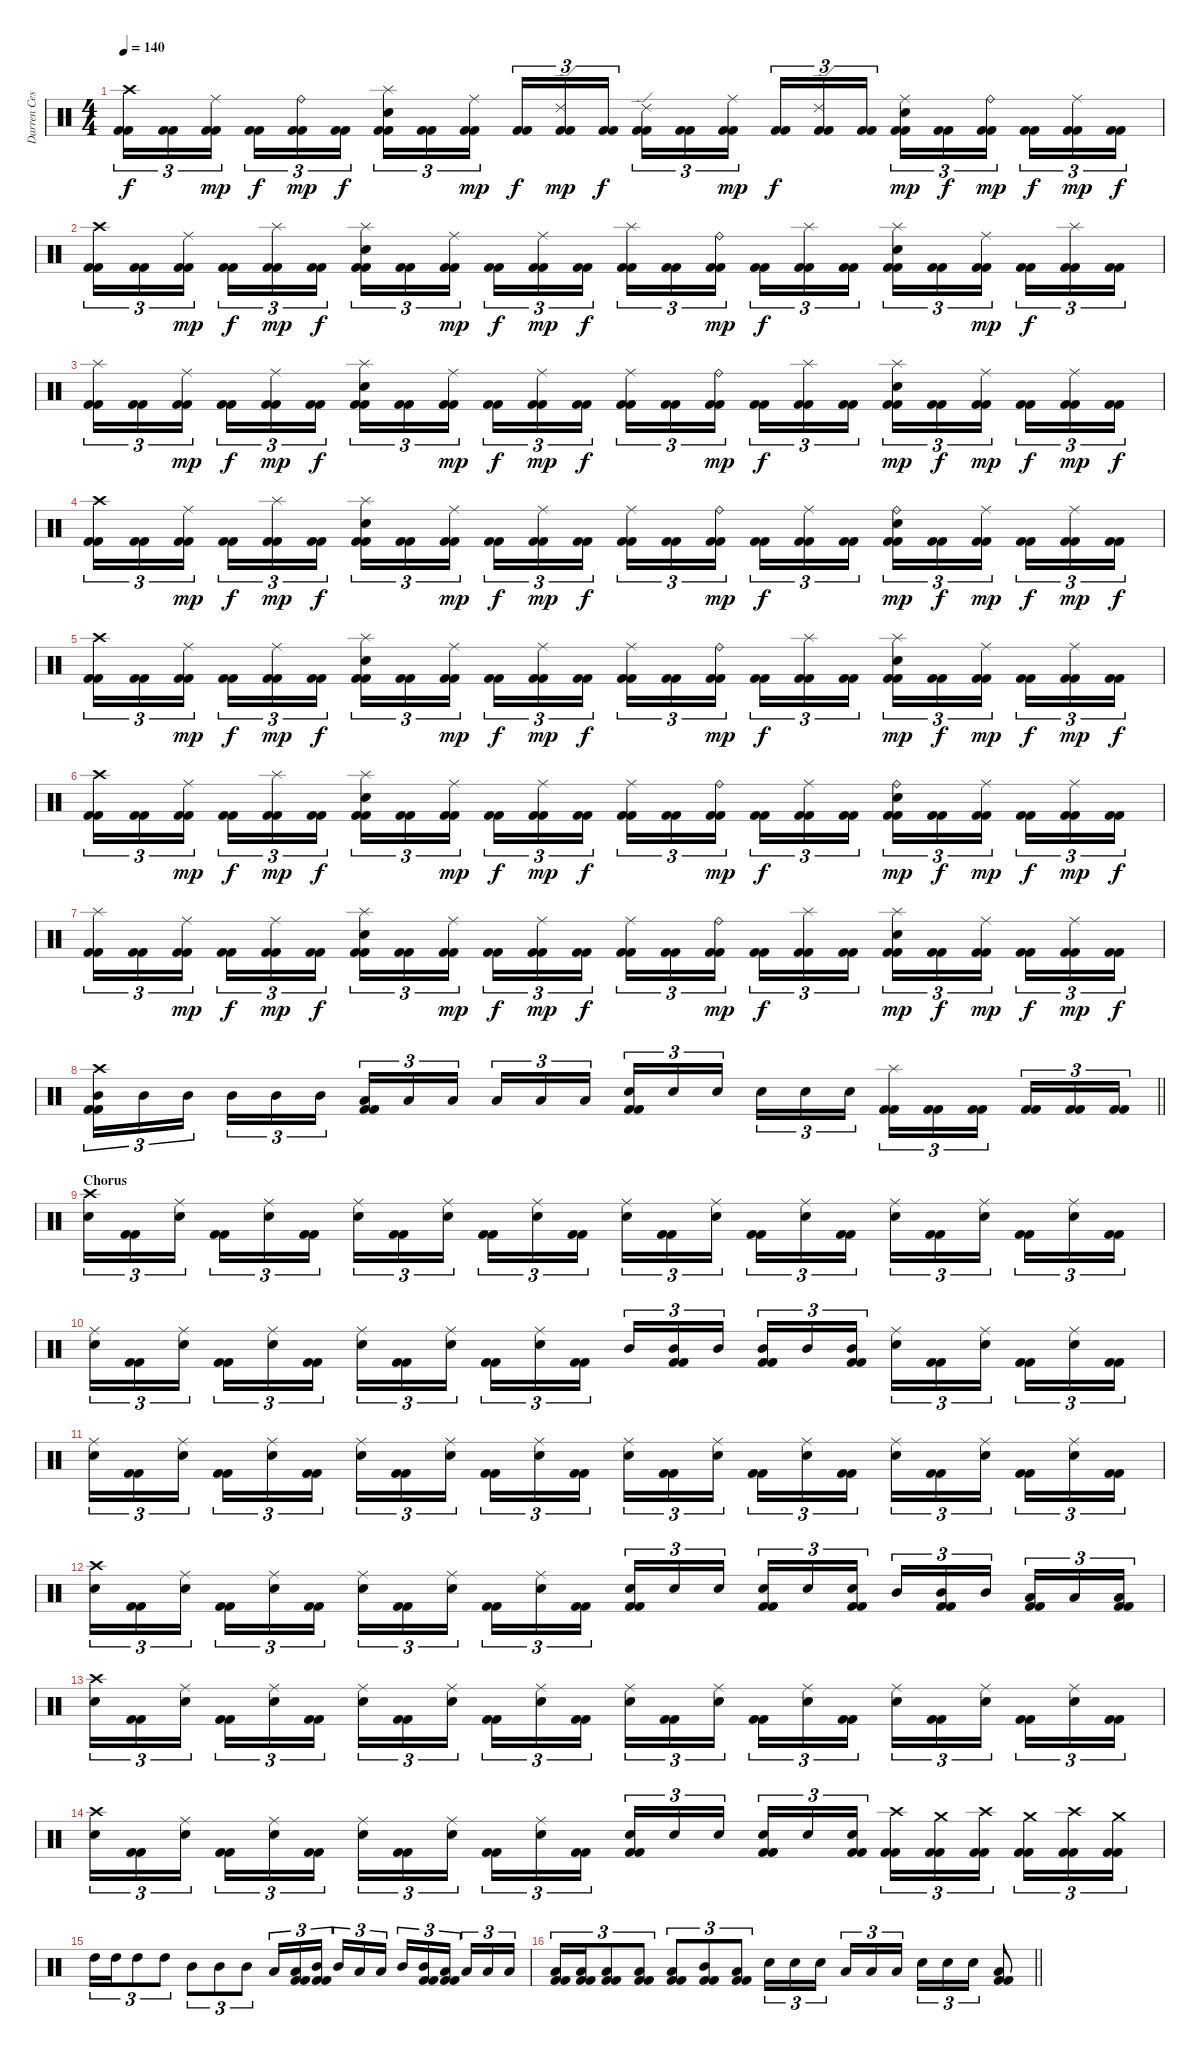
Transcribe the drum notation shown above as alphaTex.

\track ("Darren Cesca" "Darren Ces") {instrument percussion}
\staff {score}
\articulation defaults
\ts (4 4)
\tempo 140
\clef neutral
\ks c
("Crash high (hit)" "Kick (hit) 2" "Kick (hit) 2").16{tu (3 2) dy f} ("Kick (hit) 2" "Kick (hit) 2").16{tu (3 2)} ("Ride (middle)" "Kick (hit) 2" "Kick (hit) 2").16{tu (3 2) dy mp beam splitsecondary} ("Kick (hit) 2" "Kick (hit) 2").16{tu (3 2) dy f} ("Ride (bell)" "Kick (hit) 2" "Kick (hit) 2").16{tu (3 2) dy mp} ("Kick (hit) 2" "Kick (hit) 2").16{tu (3 2) dy f} ("Splash (hit)" "Electric Snare (hit)" "Kick (hit) 2" "Kick (hit) 2").16{tu (3 2)} ("Kick (hit) 2" "Kick (hit) 2").16{tu (3 2)} ("Ride (middle)" "Kick (hit) 2" "Kick (hit) 2").16{tu (3 2) dy mp beam splitsecondary} ("Kick (hit) 2" "Kick (hit) 2").16{tu (3 2) dy f} ("Ride (edge) 2" "Kick (hit) 2" "Kick (hit) 2").16{tu (3 2) dy mp} ("Kick (hit) 2" "Kick (hit) 2").16{tu (3 2) dy f} ("Ride (edge) 2" "Kick (hit) 2" "Kick (hit) 2").16{tu (3 2)} ("Kick (hit) 2" "Kick (hit) 2").16{tu (3 2)} ("Ride (middle)" "Kick (hit) 2" "Kick (hit) 2").16{tu (3 2) dy mp beam splitsecondary} ("Kick (hit) 2" "Kick (hit) 2").16{tu (3 2) dy f} ("Ride (edge) 2" "Kick (hit) 2" "Kick (hit) 2").16{tu (3 2)} ("Kick (hit) 2" "Kick (hit) 2").16{tu (3 2)} ("Ride (middle)" "Electric Snare (hit)" "Kick (hit) 2" "Kick (hit) 2").16{tu (3 2) dy mp} ("Kick (hit) 2" "Kick (hit) 2").16{tu (3 2) dy f} ("Ride (bell)" "Kick (hit) 2" "Kick (hit) 2").16{tu (3 2) dy mp beam splitsecondary} ("Kick (hit) 2" "Kick (hit) 2").16{tu (3 2) dy f} ("Ride (middle)" "Kick (hit) 2" "Kick (hit) 2").16{tu (3 2) dy mp} ("Kick (hit) 2" "Kick (hit) 2").16{tu (3 2) dy f} |
("Crash high (hit)" "Kick (hit) 2" "Kick (hit) 2").16{tu (3 2)} ("Kick (hit) 2" "Kick (hit) 2").16{tu (3 2)} ("Ride (middle)" "Kick (hit) 2" "Kick (hit) 2").16{tu (3 2) dy mp beam splitsecondary} ("Kick (hit) 2" "Kick (hit) 2").16{tu (3 2) dy f} ("Splash (hit)" "Kick (hit) 2" "Kick (hit) 2").16{tu (3 2) dy mp} ("Kick (hit) 2" "Kick (hit) 2").16{tu (3 2) dy f} ("Splash (hit)" "Electric Snare (hit)" "Kick (hit) 2" "Kick (hit) 2").16{tu (3 2)} ("Kick (hit) 2" "Kick (hit) 2").16{tu (3 2)} ("Ride (middle)" "Kick (hit) 2" "Kick (hit) 2").16{tu (3 2) dy mp beam splitsecondary} ("Kick (hit) 2" "Kick (hit) 2").16{tu (3 2) dy f} ("Ride (middle)" "Kick (hit) 2" "Kick (hit) 2").16{tu (3 2) dy mp} ("Kick (hit) 2" "Kick (hit) 2").16{tu (3 2) dy f} ("Splash (hit)" "Kick (hit) 2" "Kick (hit) 2").16{tu (3 2)} ("Kick (hit) 2" "Kick (hit) 2").16{tu (3 2)} ("Ride (bell)" "Kick (hit) 2" "Kick (hit) 2").16{tu (3 2) dy mp beam splitsecondary} ("Kick (hit) 2" "Kick (hit) 2").16{tu (3 2) dy f} ("Splash (hit)" "Kick (hit) 2" "Kick (hit) 2").16{tu (3 2)} ("Kick (hit) 2" "Kick (hit) 2").16{tu (3 2)} ("Splash (hit)" "Electric Snare (hit)" "Kick (hit) 2" "Kick (hit) 2").16{tu (3 2)} ("Kick (hit) 2" "Kick (hit) 2").16{tu (3 2)} ("Ride (middle)" "Kick (hit) 2" "Kick (hit) 2").16{tu (3 2) dy mp beam splitsecondary} ("Kick (hit) 2" "Kick (hit) 2").16{tu (3 2) dy f} ("Splash (hit)" "Kick (hit) 2" "Kick (hit) 2").16{tu (3 2)} ("Kick (hit) 2" "Kick (hit) 2").16{tu (3 2)} |
("Splash (hit)" "Kick (hit) 2" "Kick (hit) 2").16{tu (3 2)} ("Kick (hit) 2" "Kick (hit) 2").16{tu (3 2)} ("Ride (middle)" "Kick (hit) 2" "Kick (hit) 2").16{tu (3 2) dy mp beam splitsecondary} ("Kick (hit) 2" "Kick (hit) 2").16{tu (3 2) dy f} ("Ride (middle)" "Kick (hit) 2" "Kick (hit) 2").16{tu (3 2) dy mp} ("Kick (hit) 2" "Kick (hit) 2").16{tu (3 2) dy f} ("Splash (hit)" "Electric Snare (hit)" "Kick (hit) 2" "Kick (hit) 2").16{tu (3 2)} ("Kick (hit) 2" "Kick (hit) 2").16{tu (3 2)} ("Ride (middle)" "Kick (hit) 2" "Kick (hit) 2").16{tu (3 2) dy mp beam splitsecondary} ("Kick (hit) 2" "Kick (hit) 2").16{tu (3 2) dy f} ("Ride (middle)" "Kick (hit) 2" "Kick (hit) 2").16{tu (3 2) dy mp} ("Kick (hit) 2" "Kick (hit) 2").16{tu (3 2) dy f} ("Ride (middle)" "Kick (hit) 2" "Kick (hit) 2").16{tu (3 2)} ("Kick (hit) 2" "Kick (hit) 2").16{tu (3 2)} ("Ride (bell)" "Kick (hit) 2" "Kick (hit) 2").16{tu (3 2) dy mp beam splitsecondary} ("Kick (hit) 2" "Kick (hit) 2").16{tu (3 2) dy f} ("Splash (hit)" "Kick (hit) 2" "Kick (hit) 2").16{tu (3 2)} ("Kick (hit) 2" "Kick (hit) 2").16{tu (3 2)} ("Splash (hit)" "Electric Snare (hit)" "Kick (hit) 2" "Kick (hit) 2").16{tu (3 2) dy mp} ("Kick (hit) 2" "Kick (hit) 2").16{tu (3 2) dy f} ("Ride (middle)" "Kick (hit) 2" "Kick (hit) 2").16{tu (3 2) dy mp beam splitsecondary} ("Kick (hit) 2" "Kick (hit) 2").16{tu (3 2) dy f} ("Ride (middle)" "Kick (hit) 2" "Kick (hit) 2").16{tu (3 2) dy mp} ("Kick (hit) 2" "Kick (hit) 2").16{tu (3 2) dy f} |
("Crash high (hit)" "Kick (hit) 2" "Kick (hit) 2").16{tu (3 2)} ("Kick (hit) 2" "Kick (hit) 2").16{tu (3 2)} ("Ride (middle)" "Kick (hit) 2" "Kick (hit) 2").16{tu (3 2) dy mp beam splitsecondary} ("Kick (hit) 2" "Kick (hit) 2").16{tu (3 2) dy f} ("Splash (hit)" "Kick (hit) 2" "Kick (hit) 2").16{tu (3 2) dy mp} ("Kick (hit) 2" "Kick (hit) 2").16{tu (3 2) dy f} ("Splash (hit)" "Electric Snare (hit)" "Kick (hit) 2" "Kick (hit) 2").16{tu (3 2)} ("Kick (hit) 2" "Kick (hit) 2").16{tu (3 2)} ("Ride (middle)" "Kick (hit) 2" "Kick (hit) 2").16{tu (3 2) dy mp beam splitsecondary} ("Kick (hit) 2" "Kick (hit) 2").16{tu (3 2) dy f} ("Ride (middle)" "Kick (hit) 2" "Kick (hit) 2").16{tu (3 2) dy mp} ("Kick (hit) 2" "Kick (hit) 2").16{tu (3 2) dy f} ("Ride (middle)" "Kick (hit) 2" "Kick (hit) 2").16{tu (3 2)} ("Kick (hit) 2" "Kick (hit) 2").16{tu (3 2)} ("Ride (bell)" "Kick (hit) 2" "Kick (hit) 2").16{tu (3 2) dy mp beam splitsecondary} ("Kick (hit) 2" "Kick (hit) 2").16{tu (3 2) dy f} ("Ride (middle)" "Kick (hit) 2" "Kick (hit) 2").16{tu (3 2)} ("Kick (hit) 2" "Kick (hit) 2").16{tu (3 2)} ("Ride (bell)" "Electric Snare (hit)" "Kick (hit) 2" "Kick (hit) 2").16{tu (3 2) dy mp} ("Kick (hit) 2" "Kick (hit) 2").16{tu (3 2) dy f} ("Ride (middle)" "Kick (hit) 2" "Kick (hit) 2").16{tu (3 2) dy mp beam splitsecondary} ("Kick (hit) 2" "Kick (hit) 2").16{tu (3 2) dy f} ("Ride (middle)" "Kick (hit) 2" "Kick (hit) 2").16{tu (3 2) dy mp} ("Kick (hit) 2" "Kick (hit) 2").16{tu (3 2) dy f} |
("Crash high (hit)" "Kick (hit) 2" "Kick (hit) 2").16{tu (3 2)} ("Kick (hit) 2" "Kick (hit) 2").16{tu (3 2)} ("Ride (middle)" "Kick (hit) 2" "Kick (hit) 2").16{tu (3 2) dy mp beam splitsecondary} ("Kick (hit) 2" "Kick (hit) 2").16{tu (3 2) dy f} ("Ride (middle)" "Kick (hit) 2" "Kick (hit) 2").16{tu (3 2) dy mp} ("Kick (hit) 2" "Kick (hit) 2").16{tu (3 2) dy f} ("Splash (hit)" "Electric Snare (hit)" "Kick (hit) 2" "Kick (hit) 2").16{tu (3 2)} ("Kick (hit) 2" "Kick (hit) 2").16{tu (3 2)} ("Ride (middle)" "Kick (hit) 2" "Kick (hit) 2").16{tu (3 2) dy mp beam splitsecondary} ("Kick (hit) 2" "Kick (hit) 2").16{tu (3 2) dy f} ("Ride (middle)" "Kick (hit) 2" "Kick (hit) 2").16{tu (3 2) dy mp} ("Kick (hit) 2" "Kick (hit) 2").16{tu (3 2) dy f} ("Ride (middle)" "Kick (hit) 2" "Kick (hit) 2").16{tu (3 2)} ("Kick (hit) 2" "Kick (hit) 2").16{tu (3 2)} ("Ride (bell)" "Kick (hit) 2" "Kick (hit) 2").16{tu (3 2) dy mp beam splitsecondary} ("Kick (hit) 2" "Kick (hit) 2").16{tu (3 2) dy f} ("Splash (hit)" "Kick (hit) 2" "Kick (hit) 2").16{tu (3 2)} ("Kick (hit) 2" "Kick (hit) 2").16{tu (3 2)} ("Splash (hit)" "Electric Snare (hit)" "Kick (hit) 2" "Kick (hit) 2").16{tu (3 2) dy mp} ("Kick (hit) 2" "Kick (hit) 2").16{tu (3 2) dy f} ("Ride (middle)" "Kick (hit) 2" "Kick (hit) 2").16{tu (3 2) dy mp beam splitsecondary} ("Kick (hit) 2" "Kick (hit) 2").16{tu (3 2) dy f} ("Ride (middle)" "Kick (hit) 2" "Kick (hit) 2").16{tu (3 2) dy mp} ("Kick (hit) 2" "Kick (hit) 2").16{tu (3 2) dy f} |
("Crash high (hit)" "Kick (hit) 2" "Kick (hit) 2").16{tu (3 2)} ("Kick (hit) 2" "Kick (hit) 2").16{tu (3 2)} ("Ride (middle)" "Kick (hit) 2" "Kick (hit) 2").16{tu (3 2) dy mp beam splitsecondary} ("Kick (hit) 2" "Kick (hit) 2").16{tu (3 2) dy f} ("Splash (hit)" "Kick (hit) 2" "Kick (hit) 2").16{tu (3 2) dy mp} ("Kick (hit) 2" "Kick (hit) 2").16{tu (3 2) dy f} ("Splash (hit)" "Electric Snare (hit)" "Kick (hit) 2" "Kick (hit) 2").16{tu (3 2)} ("Kick (hit) 2" "Kick (hit) 2").16{tu (3 2)} ("Ride (middle)" "Kick (hit) 2" "Kick (hit) 2").16{tu (3 2) dy mp beam splitsecondary} ("Kick (hit) 2" "Kick (hit) 2").16{tu (3 2) dy f} ("Ride (middle)" "Kick (hit) 2" "Kick (hit) 2").16{tu (3 2) dy mp} ("Kick (hit) 2" "Kick (hit) 2").16{tu (3 2) dy f} ("Ride (middle)" "Kick (hit) 2" "Kick (hit) 2").16{tu (3 2)} ("Kick (hit) 2" "Kick (hit) 2").16{tu (3 2)} ("Ride (bell)" "Kick (hit) 2" "Kick (hit) 2").16{tu (3 2) dy mp beam splitsecondary} ("Kick (hit) 2" "Kick (hit) 2").16{tu (3 2) dy f} ("Ride (middle)" "Kick (hit) 2" "Kick (hit) 2").16{tu (3 2)} ("Kick (hit) 2" "Kick (hit) 2").16{tu (3 2)} ("Ride (bell)" "Electric Snare (hit)" "Kick (hit) 2" "Kick (hit) 2").16{tu (3 2) dy mp} ("Kick (hit) 2" "Kick (hit) 2").16{tu (3 2) dy f} ("Ride (middle)" "Kick (hit) 2" "Kick (hit) 2").16{tu (3 2) dy mp beam splitsecondary} ("Kick (hit) 2" "Kick (hit) 2").16{tu (3 2) dy f} ("Ride (middle)" "Kick (hit) 2" "Kick (hit) 2").16{tu (3 2) dy mp} ("Kick (hit) 2" "Kick (hit) 2").16{tu (3 2) dy f} |
("Splash (hit)" "Kick (hit) 2" "Kick (hit) 2").16{tu (3 2)} ("Kick (hit) 2" "Kick (hit) 2").16{tu (3 2)} ("Ride (middle)" "Kick (hit) 2" "Kick (hit) 2").16{tu (3 2) dy mp beam splitsecondary} ("Kick (hit) 2" "Kick (hit) 2").16{tu (3 2) dy f} ("Ride (middle)" "Kick (hit) 2" "Kick (hit) 2").16{tu (3 2) dy mp} ("Kick (hit) 2" "Kick (hit) 2").16{tu (3 2) dy f} ("Splash (hit)" "Electric Snare (hit)" "Kick (hit) 2" "Kick (hit) 2").16{tu (3 2)} ("Kick (hit) 2" "Kick (hit) 2").16{tu (3 2)} ("Ride (middle)" "Kick (hit) 2" "Kick (hit) 2").16{tu (3 2) dy mp beam splitsecondary} ("Kick (hit) 2" "Kick (hit) 2").16{tu (3 2) dy f} ("Ride (middle)" "Kick (hit) 2" "Kick (hit) 2").16{tu (3 2) dy mp} ("Kick (hit) 2" "Kick (hit) 2").16{tu (3 2) dy f} ("Ride (middle)" "Kick (hit) 2" "Kick (hit) 2").16{tu (3 2)} ("Kick (hit) 2" "Kick (hit) 2").16{tu (3 2)} ("Ride (bell)" "Kick (hit) 2" "Kick (hit) 2").16{tu (3 2) dy mp beam splitsecondary} ("Kick (hit) 2" "Kick (hit) 2").16{tu (3 2) dy f} ("Splash (hit)" "Kick (hit) 2" "Kick (hit) 2").16{tu (3 2)} ("Kick (hit) 2" "Kick (hit) 2").16{tu (3 2)} ("Splash (hit)" "Electric Snare (hit)" "Kick (hit) 2" "Kick (hit) 2").16{tu (3 2) dy mp} ("Kick (hit) 2" "Kick (hit) 2").16{tu (3 2) dy f} ("Ride (middle)" "Kick (hit) 2" "Kick (hit) 2").16{tu (3 2) dy mp beam splitsecondary} ("Kick (hit) 2" "Kick (hit) 2").16{tu (3 2) dy f} ("Ride (middle)" "Kick (hit) 2" "Kick (hit) 2").16{tu (3 2) dy mp} ("Kick (hit) 2" "Kick (hit) 2").16{tu (3 2) dy f} |
\barLineRight lightlight
("Crash high (hit)" "Mid Tom (hit)" "Kick (hit) 2" "Kick (hit) 2").16{tu (3 2)} "Mid Tom (hit)".16{tu (3 2)} "Mid Tom (hit)".16{tu (3 2) beam splitsecondary} "Mid Tom (hit)".16{tu (3 2)} "Mid Tom (hit)".16{tu (3 2)} "Mid Tom (hit)".16{tu (3 2)} ("Low Tom (hit)" "Kick (hit) 2" "Kick (hit) 2").16{tu (3 2)} "Low Tom (hit)".16{tu (3 2)} "Low Tom (hit)".16{tu (3 2) beam splitsecondary} "Low Tom (hit)".16{tu (3 2)} "Low Tom (hit)".16{tu (3 2)} "Low Tom (hit)".16{tu (3 2)} ("Electric Snare (hit)" "Kick (hit) 2" "Kick (hit) 2").16{tu (3 2)} "Electric Snare (hit)".16{tu (3 2)} "Electric Snare (hit)".16{tu (3 2) beam splitsecondary} "Electric Snare (hit)".16{tu (3 2)} "Electric Snare (hit)".16{tu (3 2)} "Electric Snare (hit)".16{tu (3 2)} ("Splash (hit)" "Kick (hit) 2" "Kick (hit) 2").16{tu (3 2)} ("Kick (hit) 2" "Kick (hit) 2").16{tu (3 2)} ("Kick (hit) 2" "Kick (hit) 2").16{tu (3 2) beam splitsecondary} ("Kick (hit) 2" "Kick (hit) 2").16{tu (3 2)} ("Kick (hit) 2" "Kick (hit) 2").16{tu (3 2)} ("Kick (hit) 2" "Kick (hit) 2").16{tu (3 2)} |
\section ("" "Chorus")
("Crash high (hit)" "Electric Snare (hit)").16{tu (3 2)} ("Kick (hit) 2" "Kick (hit) 2").16{tu (3 2)} ("Ride (middle)" "Electric Snare (hit)").16{tu (3 2) beam splitsecondary} ("Kick (hit) 2" "Kick (hit) 2").16{tu (3 2)} ("Ride (middle)" "Electric Snare (hit)").16{tu (3 2)} ("Kick (hit) 2" "Kick (hit) 2").16{tu (3 2)} ("Ride (middle)" "Electric Snare (hit)").16{tu (3 2)} ("Kick (hit) 2" "Kick (hit) 2").16{tu (3 2)} ("Ride (middle)" "Electric Snare (hit)").16{tu (3 2) beam splitsecondary} ("Kick (hit) 2" "Kick (hit) 2").16{tu (3 2)} ("Ride (middle)" "Electric Snare (hit)").16{tu (3 2)} ("Kick (hit) 2" "Kick (hit) 2").16{tu (3 2)} ("Ride (middle)" "Electric Snare (hit)").16{tu (3 2)} ("Kick (hit) 2" "Kick (hit) 2").16{tu (3 2)} ("Ride (middle)" "Electric Snare (hit)").16{tu (3 2) beam splitsecondary} ("Kick (hit) 2" "Kick (hit) 2").16{tu (3 2)} ("Ride (middle)" "Electric Snare (hit)").16{tu (3 2)} ("Kick (hit) 2" "Kick (hit) 2").16{tu (3 2)} ("Ride (middle)" "Electric Snare (hit)").16{tu (3 2)} ("Kick (hit) 2" "Kick (hit) 2").16{tu (3 2)} ("Ride (middle)" "Electric Snare (hit)").16{tu (3 2) beam splitsecondary} ("Kick (hit) 2" "Kick (hit) 2").16{tu (3 2)} ("Ride (middle)" "Electric Snare (hit)").16{tu (3 2)} ("Kick (hit) 2" "Kick (hit) 2").16{tu (3 2)} |
("Ride (middle)" "Electric Snare (hit)").16{tu (3 2)} ("Kick (hit) 2" "Kick (hit) 2").16{tu (3 2)} ("Ride (middle)" "Electric Snare (hit)").16{tu (3 2) beam splitsecondary} ("Kick (hit) 2" "Kick (hit) 2").16{tu (3 2)} ("Ride (middle)" "Electric Snare (hit)").16{tu (3 2)} ("Kick (hit) 2" "Kick (hit) 2").16{tu (3 2)} ("Ride (middle)" "Electric Snare (hit)").16{tu (3 2)} ("Kick (hit) 2" "Kick (hit) 2").16{tu (3 2)} ("Ride (middle)" "Electric Snare (hit)").16{tu (3 2) beam splitsecondary} ("Kick (hit) 2" "Kick (hit) 2").16{tu (3 2)} ("Ride (middle)" "Electric Snare (hit)").16{tu (3 2)} ("Kick (hit) 2" "Kick (hit) 2").16{tu (3 2)} "Mid Tom (hit)".16{tu (3 2)} ("Mid Tom (hit)" "Kick (hit) 2" "Kick (hit) 2").16{tu (3 2)} "Mid Tom (hit)".16{tu (3 2) beam splitsecondary} ("Mid Tom (hit)" "Kick (hit) 2" "Kick (hit) 2").16{tu (3 2)} "Mid Tom (hit)".16{tu (3 2)} ("Mid Tom (hit)" "Kick (hit) 2" "Kick (hit) 2").16{tu (3 2)} ("Ride (middle)" "Electric Snare (hit)").16{tu (3 2)} ("Kick (hit) 2" "Kick (hit) 2").16{tu (3 2)} ("Ride (middle)" "Electric Snare (hit)").16{tu (3 2) beam splitsecondary} ("Kick (hit) 2" "Kick (hit) 2").16{tu (3 2)} ("Ride (middle)" "Electric Snare (hit)").16{tu (3 2)} ("Kick (hit) 2" "Kick (hit) 2").16{tu (3 2)} |
("Ride (middle)" "Electric Snare (hit)").16{tu (3 2)} ("Kick (hit) 2" "Kick (hit) 2").16{tu (3 2)} ("Ride (middle)" "Electric Snare (hit)").16{tu (3 2) beam splitsecondary} ("Kick (hit) 2" "Kick (hit) 2").16{tu (3 2)} ("Ride (middle)" "Electric Snare (hit)").16{tu (3 2)} ("Kick (hit) 2" "Kick (hit) 2").16{tu (3 2)} ("Ride (middle)" "Electric Snare (hit)").16{tu (3 2)} ("Kick (hit) 2" "Kick (hit) 2").16{tu (3 2)} ("Ride (middle)" "Electric Snare (hit)").16{tu (3 2) beam splitsecondary} ("Kick (hit) 2" "Kick (hit) 2").16{tu (3 2)} ("Ride (middle)" "Electric Snare (hit)").16{tu (3 2)} ("Kick (hit) 2" "Kick (hit) 2").16{tu (3 2)} ("Ride (middle)" "Electric Snare (hit)").16{tu (3 2)} ("Kick (hit) 2" "Kick (hit) 2").16{tu (3 2)} ("Ride (middle)" "Electric Snare (hit)").16{tu (3 2) beam splitsecondary} ("Kick (hit) 2" "Kick (hit) 2").16{tu (3 2)} ("Ride (middle)" "Electric Snare (hit)").16{tu (3 2)} ("Kick (hit) 2" "Kick (hit) 2").16{tu (3 2)} ("Ride (middle)" "Electric Snare (hit)").16{tu (3 2)} ("Kick (hit) 2" "Kick (hit) 2").16{tu (3 2)} ("Ride (middle)" "Electric Snare (hit)").16{tu (3 2) beam splitsecondary} ("Kick (hit) 2" "Kick (hit) 2").16{tu (3 2)} ("Ride (middle)" "Electric Snare (hit)").16{tu (3 2)} ("Kick (hit) 2" "Kick (hit) 2").16{tu (3 2)} |
("Crash high (hit)" "Electric Snare (hit)").16{tu (3 2)} ("Kick (hit) 2" "Kick (hit) 2").16{tu (3 2)} ("Ride (middle)" "Electric Snare (hit)").16{tu (3 2) beam splitsecondary} ("Kick (hit) 2" "Kick (hit) 2").16{tu (3 2)} ("Ride (middle)" "Electric Snare (hit)").16{tu (3 2)} ("Kick (hit) 2" "Kick (hit) 2").16{tu (3 2)} ("Ride (middle)" "Electric Snare (hit)").16{tu (3 2)} ("Kick (hit) 2" "Kick (hit) 2").16{tu (3 2)} ("Ride (middle)" "Electric Snare (hit)").16{tu (3 2) beam splitsecondary} ("Kick (hit) 2" "Kick (hit) 2").16{tu (3 2)} ("Ride (middle)" "Electric Snare (hit)").16{tu (3 2)} ("Kick (hit) 2" "Kick (hit) 2").16{tu (3 2)} ("Electric Snare (hit)" "Kick (hit) 2" "Kick (hit) 2").16{tu (3 2)} "Electric Snare (hit)".16{tu (3 2)} "Electric Snare (hit)".16{tu (3 2) beam splitsecondary} ("Electric Snare (hit)" "Kick (hit) 2" "Kick (hit) 2").16{tu (3 2)} "Electric Snare (hit)".16{tu (3 2)} ("Electric Snare (hit)" "Kick (hit) 2" "Kick (hit) 2").16{tu (3 2)} "Mid Tom (hit)".16{tu (3 2)} ("Mid Tom (hit)" "Kick (hit) 2" "Kick (hit) 2").16{tu (3 2)} "Mid Tom (hit)".16{tu (3 2) beam splitsecondary} ("Low Tom (hit)" "Kick (hit) 2" "Kick (hit) 2").16{tu (3 2)} "Low Tom (hit)".16{tu (3 2)} ("Low Tom (hit)" "Kick (hit) 2" "Kick (hit) 2").16{tu (3 2)} |
("Crash high (hit)" "Electric Snare (hit)").16{tu (3 2)} ("Kick (hit) 2" "Kick (hit) 2").16{tu (3 2)} ("Ride (middle)" "Electric Snare (hit)").16{tu (3 2) beam splitsecondary} ("Kick (hit) 2" "Kick (hit) 2").16{tu (3 2)} ("Ride (middle)" "Electric Snare (hit)").16{tu (3 2)} ("Kick (hit) 2" "Kick (hit) 2").16{tu (3 2)} ("Ride (middle)" "Electric Snare (hit)").16{tu (3 2)} ("Kick (hit) 2" "Kick (hit) 2").16{tu (3 2)} ("Ride (middle)" "Electric Snare (hit)").16{tu (3 2) beam splitsecondary} ("Kick (hit) 2" "Kick (hit) 2").16{tu (3 2)} ("Ride (middle)" "Electric Snare (hit)").16{tu (3 2)} ("Kick (hit) 2" "Kick (hit) 2").16{tu (3 2)} ("Ride (middle)" "Electric Snare (hit)").16{tu (3 2)} ("Kick (hit) 2" "Kick (hit) 2").16{tu (3 2)} ("Ride (middle)" "Electric Snare (hit)").16{tu (3 2) beam splitsecondary} ("Kick (hit) 2" "Kick (hit) 2").16{tu (3 2)} ("Ride (middle)" "Electric Snare (hit)").16{tu (3 2)} ("Kick (hit) 2" "Kick (hit) 2").16{tu (3 2)} ("Ride (middle)" "Electric Snare (hit)").16{tu (3 2)} ("Kick (hit) 2" "Kick (hit) 2").16{tu (3 2)} ("Ride (middle)" "Electric Snare (hit)").16{tu (3 2) beam splitsecondary} ("Kick (hit) 2" "Kick (hit) 2").16{tu (3 2)} ("Ride (middle)" "Electric Snare (hit)").16{tu (3 2)} ("Kick (hit) 2" "Kick (hit) 2").16{tu (3 2)} |
("Crash high (hit)" "Electric Snare (hit)").16{tu (3 2)} ("Kick (hit) 2" "Kick (hit) 2").16{tu (3 2)} ("Ride (middle)" "Electric Snare (hit)").16{tu (3 2) beam splitsecondary} ("Kick (hit) 2" "Kick (hit) 2").16{tu (3 2)} ("Ride (middle)" "Electric Snare (hit)").16{tu (3 2)} ("Kick (hit) 2" "Kick (hit) 2").16{tu (3 2)} ("Ride (middle)" "Electric Snare (hit)").16{tu (3 2)} ("Kick (hit) 2" "Kick (hit) 2").16{tu (3 2)} ("Ride (middle)" "Electric Snare (hit)").16{tu (3 2) beam splitsecondary} ("Kick (hit) 2" "Kick (hit) 2").16{tu (3 2)} ("Ride (middle)" "Electric Snare (hit)").16{tu (3 2)} ("Kick (hit) 2" "Kick (hit) 2").16{tu (3 2)} ("Electric Snare (hit)" "Kick (hit) 2" "Kick (hit) 2").16{tu (3 2)} "Electric Snare (hit)".16{tu (3 2)} "Electric Snare (hit)".16{tu (3 2) beam splitsecondary} ("Electric Snare (hit)" "Kick (hit) 2" "Kick (hit) 2").16{tu (3 2)} "Electric Snare (hit)".16{tu (3 2)} ("Electric Snare (hit)" "Kick (hit) 2" "Kick (hit) 2").16{tu (3 2)} ("Crash high (hit)" "Kick (hit) 2" "Kick (hit) 2").16{tu (3 2)} ("Crash medium (hit)" "Kick (hit) 2" "Kick (hit) 2").16{tu (3 2)} ("Crash high (hit)" "Kick (hit) 2" "Kick (hit) 2").16{tu (3 2) beam splitsecondary} ("Crash medium (hit)" "Kick (hit) 2" "Kick (hit) 2").16{tu (3 2)} ("Crash high (hit)" "Kick (hit) 2" "Kick (hit) 2").16{tu (3 2)} ("Crash medium (hit)" "Kick (hit) 2" "Kick (hit) 2").16{tu (3 2)} |
"High Tom (hit)".16{tu (3 2)} "High Tom (hit)".16{tu (3 2)} "High Tom (hit)".8{tu (3 2)} "High Tom (hit)".8{tu (3 2)} "Mid Tom (hit)".8{tu (3 2)} "Mid Tom (hit)".8{tu (3 2)} "Mid Tom (hit)".8{tu (3 2)} "Low Tom (hit)".16{tu (3 2)} ("Low Tom (hit)" "Kick (hit) 2" "Kick (hit) 2").16{tu (3 2)} ("Mid Tom (hit)" "Kick (hit) 2" "Kick (hit) 2").16{tu (3 2) beam splitsecondary} "Mid Tom (hit)".16{tu (3 2)} "Low Tom (hit)".16{tu (3 2)} "Low Tom (hit)".16{tu (3 2)} "Mid Tom (hit)".16{tu (3 2)} ("Mid Tom (hit)" "Kick (hit) 2" "Kick (hit) 2").16{tu (3 2)} ("Low Tom (hit)" "Kick (hit) 2" "Kick (hit) 2").16{tu (3 2) beam splitsecondary} "Low Tom (hit)".16{tu (3 2)} "Low Tom (hit)".16{tu (3 2)} "Low Tom (hit)".16{tu (3 2)} |
\barLineRight lightlight
("Low Tom (hit)" "Kick (hit) 2" "Kick (hit) 2").16{tu (3 2)} ("Low Tom (hit)" "Kick (hit) 2" "Kick (hit) 2").16{tu (3 2)} ("Low Tom (hit)" "Kick (hit) 2" "Kick (hit) 2").8{tu (3 2)} ("Low Tom (hit)" "Kick (hit) 2" "Kick (hit) 2").8{tu (3 2)} ("Low Tom (hit)" "Kick (hit) 2" "Kick (hit) 2").8{tu (3 2)} ("Mid Tom (hit)" "Kick (hit) 2" "Kick (hit) 2").8{tu (3 2)} ("Low Tom (hit)" "Kick (hit) 2" "Kick (hit) 2").8{tu (3 2)} "Electric Snare (hit)".16{tu (3 2)} "Electric Snare (hit)".16{tu (3 2)} "Electric Snare (hit)".16{tu (3 2) beam splitsecondary} "Low Tom (hit)".16{tu (3 2)} "Low Tom (hit)".16{tu (3 2)} "Low Tom (hit)".16{tu (3 2)} "Electric Snare (hit)".16{tu (3 2)} "Electric Snare (hit)".16{tu (3 2)} "Electric Snare (hit)".16{tu (3 2)} ("Low Tom (hit)" "Kick (hit) 2" "Kick (hit) 2").8
